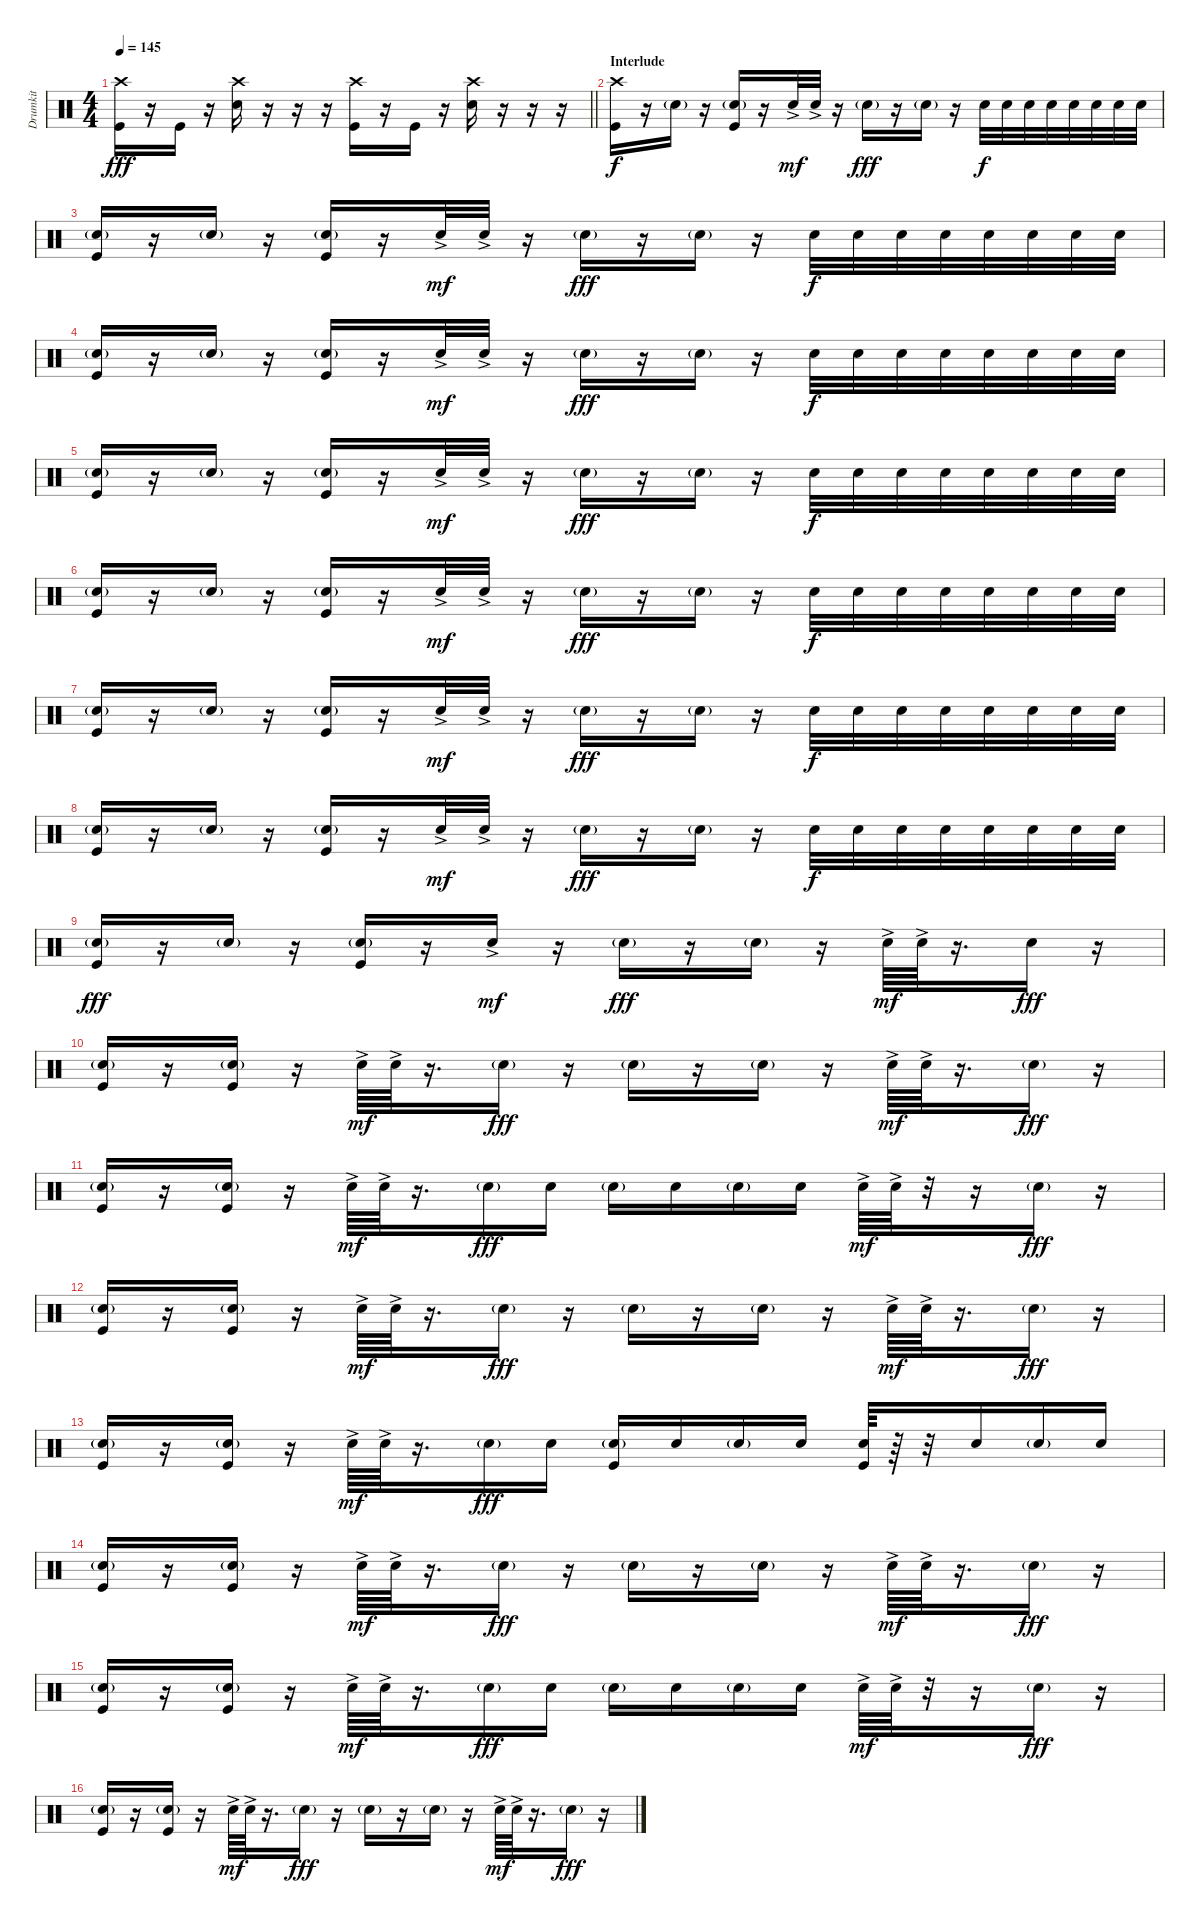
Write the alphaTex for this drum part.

\track ("Drumkit" "Drumkit") {instrument percussion}
\staff {score}
\articulation defaults
\ts (4 4)
\tempo 145
\clef neutral
\barLineRight lightlight
\ks c
("Crash high (hit)" "Kick (hit)").16{dy fff} r.16 "Kick (hit)".16 r.16 ("Crash high (hit)" "Snare (hit) 2").16 r.16 r.16 r.16 ("Crash high (hit)" "Kick (hit)").16 r.16 "Kick (hit)".16 r.16 ("Crash high (hit)" "Snare (hit) 2").16 r.16 r.16 r.16 |
\section ("" "Interlude")
("Crash high (hit)" "Kick (hit)").16{dy f} r.16 "Snare (hit) 2"{g}.16 r.16 ("Snare (hit) 2"{g} "Kick (hit)").16 r.16 "Snare (hit) 2"{ac}.32{dy mf} "Snare (hit) 2"{ac}.32 r.16 "Snare (hit) 2"{g}.16{dy fff} r.16 "Snare (hit) 2"{g}.16 r.16 "Snare (hit) 2".32{dy f} "Snare (hit) 2".32 "Snare (hit) 2".32 "Snare (hit) 2".32 "Snare (hit) 2".32 "Snare (hit) 2".32 "Snare (hit) 2".32 "Snare (hit) 2".32 |
("Snare (hit) 2"{g} "Kick (hit)").16 r.16 "Snare (hit) 2"{g}.16 r.16 ("Snare (hit) 2"{g} "Kick (hit)").16 r.16 "Snare (hit) 2"{ac}.32{dy mf} "Snare (hit) 2"{ac}.32 r.16 "Snare (hit) 2"{g}.16{dy fff} r.16 "Snare (hit) 2"{g}.16 r.16 "Snare (hit) 2".32{dy f} "Snare (hit) 2".32 "Snare (hit) 2".32 "Snare (hit) 2".32 "Snare (hit) 2".32 "Snare (hit) 2".32 "Snare (hit) 2".32 "Snare (hit) 2".32 |
("Snare (hit) 2"{g} "Kick (hit)").16 r.16 "Snare (hit) 2"{g}.16 r.16 ("Snare (hit) 2"{g} "Kick (hit)").16 r.16 "Snare (hit) 2"{ac}.32{dy mf} "Snare (hit) 2"{ac}.32 r.16 "Snare (hit) 2"{g}.16{dy fff} r.16 "Snare (hit) 2"{g}.16 r.16 "Snare (hit) 2".32{dy f} "Snare (hit) 2".32 "Snare (hit) 2".32 "Snare (hit) 2".32 "Snare (hit) 2".32 "Snare (hit) 2".32 "Snare (hit) 2".32 "Snare (hit) 2".32 |
("Snare (hit) 2"{g} "Kick (hit)").16 r.16 "Snare (hit) 2"{g}.16 r.16 ("Snare (hit) 2"{g} "Kick (hit)").16 r.16 "Snare (hit) 2"{ac}.32{dy mf} "Snare (hit) 2"{ac}.32 r.16 "Snare (hit) 2"{g}.16{dy fff} r.16 "Snare (hit) 2"{g}.16 r.16 "Snare (hit) 2".32{dy f} "Snare (hit) 2".32 "Snare (hit) 2".32 "Snare (hit) 2".32 "Snare (hit) 2".32 "Snare (hit) 2".32 "Snare (hit) 2".32 "Snare (hit) 2".32 |
("Snare (hit) 2"{g} "Kick (hit)").16 r.16 "Snare (hit) 2"{g}.16 r.16 ("Snare (hit) 2"{g} "Kick (hit)").16 r.16 "Snare (hit) 2"{ac}.32{dy mf} "Snare (hit) 2"{ac}.32 r.16 "Snare (hit) 2"{g}.16{dy fff} r.16 "Snare (hit) 2"{g}.16 r.16 "Snare (hit) 2".32{dy f} "Snare (hit) 2".32 "Snare (hit) 2".32 "Snare (hit) 2".32 "Snare (hit) 2".32 "Snare (hit) 2".32 "Snare (hit) 2".32 "Snare (hit) 2".32 |
("Snare (hit) 2"{g} "Kick (hit)").16 r.16 "Snare (hit) 2"{g}.16 r.16 ("Snare (hit) 2"{g} "Kick (hit)").16 r.16 "Snare (hit) 2"{ac}.32{dy mf} "Snare (hit) 2"{ac}.32 r.16 "Snare (hit) 2"{g}.16{dy fff} r.16 "Snare (hit) 2"{g}.16 r.16 "Snare (hit) 2".32{dy f} "Snare (hit) 2".32 "Snare (hit) 2".32 "Snare (hit) 2".32 "Snare (hit) 2".32 "Snare (hit) 2".32 "Snare (hit) 2".32 "Snare (hit) 2".32 |
("Snare (hit) 2"{g} "Kick (hit)").16 r.16 "Snare (hit) 2"{g}.16 r.16 ("Snare (hit) 2"{g} "Kick (hit)").16 r.16 "Snare (hit) 2"{ac}.32{dy mf} "Snare (hit) 2"{ac}.32 r.16 "Snare (hit) 2"{g}.16{dy fff} r.16 "Snare (hit) 2"{g}.16 r.16 "Snare (hit) 2".32{dy f} "Snare (hit) 2".32 "Snare (hit) 2".32 "Snare (hit) 2".32 "Snare (hit) 2".32 "Snare (hit) 2".32 "Snare (hit) 2".32 "Snare (hit) 2".32 |
("Snare (hit) 2"{g} "Kick (hit)").16{dy fff} r.16 "Snare (hit) 2"{g}.16 r.16 ("Snare (hit) 2"{g} "Kick (hit)").16 r.16 "Snare (hit) 2"{ac}.16{dy mf} r.16 "Snare (hit) 2"{g}.16{dy fff} r.16 "Snare (hit) 2"{g}.16 r.16 "Snare (hit) 2"{ac}.64{dy mf} "Snare (hit) 2"{ac}.64 r.16{d} "Snare (hit) 2".16{dy fff} r.16 |
("Snare (hit) 2"{g} "Kick (hit)").16 r.16 ("Snare (hit) 2"{g} "Kick (hit)").16 r.16 "Snare (hit) 2"{ac}.64{dy mf} "Snare (hit) 2"{ac}.64 r.16{d} "Snare (hit) 2"{g}.16{dy fff} r.16 "Snare (hit) 2"{g}.16 r.16 "Snare (hit) 2"{g}.16 r.16 "Snare (hit) 2"{ac}.64{dy mf} "Snare (hit) 2"{ac}.64 r.16{d} "Snare (hit) 2"{g}.16{dy fff} r.16 |
("Snare (hit) 2"{g} "Kick (hit)").16 r.16 ("Snare (hit) 2"{g} "Kick (hit)").16 r.16 "Snare (hit) 2"{ac}.64{dy mf} "Snare (hit) 2"{ac}.64 r.16{d} "Snare (hit) 2"{g}.16{dy fff} "Snare (hit) 2".16 "Snare (hit) 2"{g}.16 "Snare (hit) 2".16 "Snare (hit) 2"{g}.16 "Snare (hit) 2".16 "Snare (hit) 2"{ac}.64{dy mf} "Snare (hit) 2"{ac}.64 r.32 r.16 "Snare (hit) 2"{g}.16{dy fff} r.16 |
("Snare (hit) 2"{g} "Kick (hit)").16 r.16 ("Snare (hit) 2"{g} "Kick (hit)").16 r.16 "Snare (hit) 2"{ac}.64{dy mf} "Snare (hit) 2"{ac}.64 r.16{d} "Snare (hit) 2"{g}.16{dy fff} r.16 "Snare (hit) 2"{g}.16 r.16 "Snare (hit) 2"{g}.16 r.16 "Snare (hit) 2"{ac}.64{dy mf} "Snare (hit) 2"{ac}.64 r.16{d} "Snare (hit) 2"{g}.16{dy fff} r.16 |
("Snare (hit) 2"{g} "Kick (hit)").16 r.16 ("Snare (hit) 2"{g} "Kick (hit)").16 r.16 "Snare (hit) 2"{ac}.64{dy mf} "Snare (hit) 2"{ac}.64 r.16{d} "Snare (hit) 2"{g}.16{dy fff} "Snare (hit) 2".16 ("Snare (hit) 2"{g} "Kick (hit)").16 "Snare (hit) 2".16 "Snare (hit) 2"{g}.16 "Snare (hit) 2".16 ("Snare (hit) 2" "Kick (hit)").64 r.64 r.32 "Snare (hit) 2".16 "Snare (hit) 2"{g}.16 "Snare (hit) 2".16 |
("Snare (hit) 2"{g} "Kick (hit)").16 r.16 ("Snare (hit) 2"{g} "Kick (hit)").16 r.16 "Snare (hit) 2"{ac}.64{dy mf} "Snare (hit) 2"{ac}.64 r.16{d} "Snare (hit) 2"{g}.16{dy fff} r.16 "Snare (hit) 2"{g}.16 r.16 "Snare (hit) 2"{g}.16 r.16 "Snare (hit) 2"{ac}.64{dy mf} "Snare (hit) 2"{ac}.64 r.16{d} "Snare (hit) 2"{g}.16{dy fff} r.16 |
("Snare (hit) 2"{g} "Kick (hit)").16 r.16 ("Snare (hit) 2"{g} "Kick (hit)").16 r.16 "Snare (hit) 2"{ac}.64{dy mf} "Snare (hit) 2"{ac}.64 r.16{d} "Snare (hit) 2"{g}.16{dy fff} "Snare (hit) 2".16 "Snare (hit) 2"{g}.16 "Snare (hit) 2".16 "Snare (hit) 2"{g}.16 "Snare (hit) 2".16 "Snare (hit) 2"{ac}.64{dy mf} "Snare (hit) 2"{ac}.64 r.32 r.16 "Snare (hit) 2"{g}.16{dy fff} r.16 |
("Snare (hit) 2"{g} "Kick (hit)").16 r.16 ("Snare (hit) 2"{g} "Kick (hit)").16 r.16 "Snare (hit) 2"{ac}.64{dy mf} "Snare (hit) 2"{ac}.64 r.16{d} "Snare (hit) 2"{g}.16{dy fff} r.16 "Snare (hit) 2"{g}.16 r.16 "Snare (hit) 2"{g}.16 r.16 "Snare (hit) 2"{ac}.64{dy mf} "Snare (hit) 2"{ac}.64 r.16{d} "Snare (hit) 2"{g}.16{dy fff} r.16
